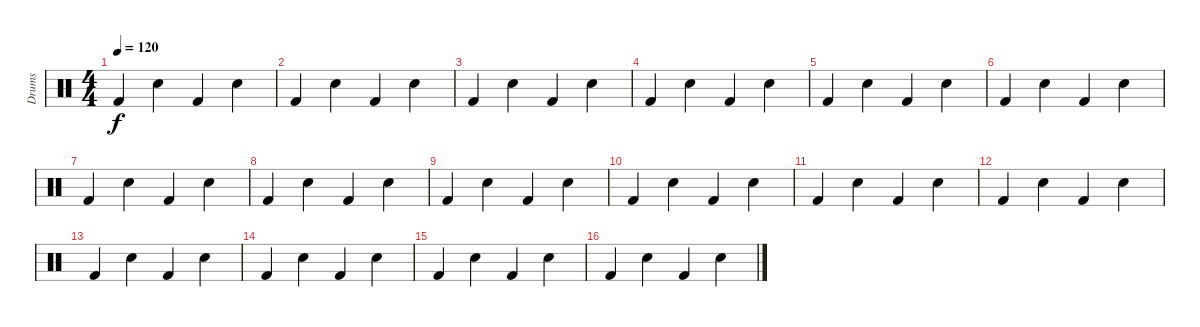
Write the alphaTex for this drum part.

\track ("Drums" "Drums") {instrument percussion}
\staff {score}
\articulation defaults
\ts (4 4)
\tempo 120
\clef neutral
\ks c "Kick (hit) 2".4{dy f} "Snare (hit) 2".4 "Kick (hit) 2".4 "Snare (hit) 2".4
|
"Kick (hit) 2".4 "Snare (hit) 2".4 "Kick (hit) 2".4 "Snare (hit) 2".4 |
"Kick (hit) 2".4 "Snare (hit) 2".4 "Kick (hit) 2".4 "Snare (hit) 2".4 |
"Kick (hit) 2".4 "Snare (hit) 2".4 "Kick (hit) 2".4 "Snare (hit) 2".4 |
"Kick (hit) 2".4 "Snare (hit) 2".4 "Kick (hit) 2".4 "Snare (hit) 2".4 |
"Kick (hit) 2".4 "Snare (hit) 2".4 "Kick (hit) 2".4 "Snare (hit) 2".4 |
"Kick (hit) 2".4 "Snare (hit) 2".4 "Kick (hit) 2".4 "Snare (hit) 2".4 |
"Kick (hit) 2".4 "Snare (hit) 2".4 "Kick (hit) 2".4 "Snare (hit) 2".4 |
"Kick (hit) 2".4 "Snare (hit) 2".4 "Kick (hit) 2".4 "Snare (hit) 2".4 |
"Kick (hit) 2".4 "Snare (hit) 2".4 "Kick (hit) 2".4 "Snare (hit) 2".4 |
"Kick (hit) 2".4 "Snare (hit) 2".4 "Kick (hit) 2".4 "Snare (hit) 2".4 |
"Kick (hit) 2".4 "Snare (hit) 2".4 "Kick (hit) 2".4 "Snare (hit) 2".4 |
"Kick (hit) 2".4 "Snare (hit) 2".4 "Kick (hit) 2".4 "Snare (hit) 2".4 |
"Kick (hit) 2".4 "Snare (hit) 2".4 "Kick (hit) 2".4 "Snare (hit) 2".4 |
"Kick (hit) 2".4 "Snare (hit) 2".4 "Kick (hit) 2".4 "Snare (hit) 2".4 |
"Kick (hit) 2".4 "Snare (hit) 2".4 "Kick (hit) 2".4 "Snare (hit) 2".4
